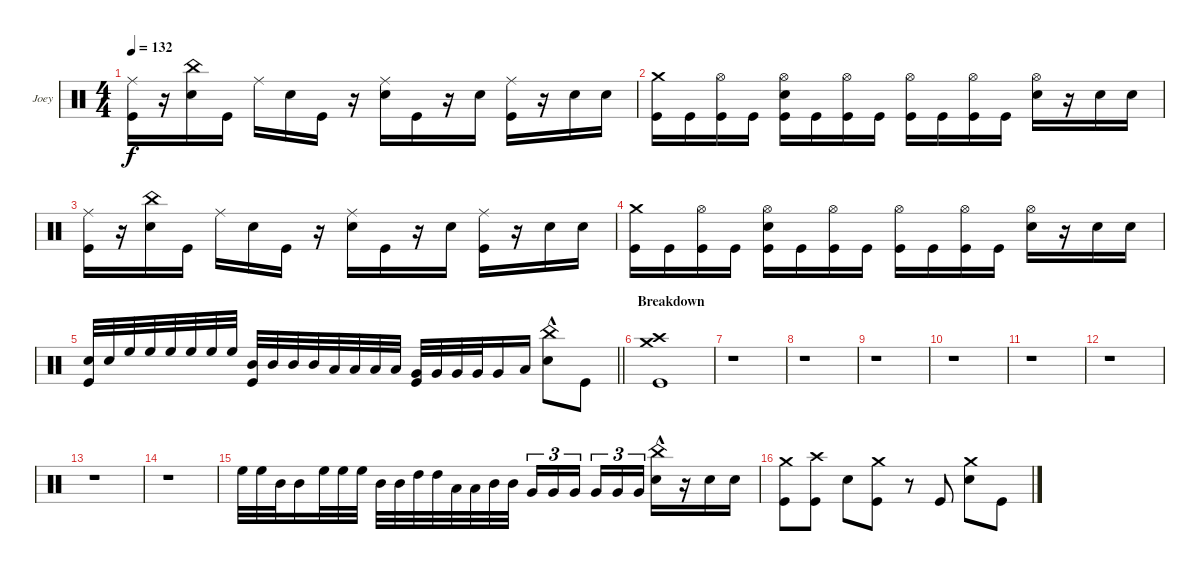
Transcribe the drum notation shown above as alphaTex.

\bracketExtendMode groupsimilarinstruments
\firstSystemTrackNameOrientation horizontal
\otherSystemsTrackNameOrientation horizontal
\track ("Joey Jordison" "Joey") {instrument percussion}
\staff {score}
\articulation defaults
\ts (4 4)
\tempo 132
\clef neutral
\ks c
("Ride (middle)" "Kick (hit)").16{dy f} r.16 ("China (hit)" "Snare (hit) 2").16 "Kick (hit)".16 "Ride (middle)".16 "Snare (hit) 2".16 "Kick (hit)".16 r.16 ("Ride (middle)" "Snare (hit) 2").16 "Kick (hit)".16 r.16 "Snare (hit) 2".16 ("Ride (middle)" "Kick (hit)").16 r.16 "Snare (hit) 2".16 "Snare (hit) 2".16 |
("Crash medium (hit)" "Kick (hit)").16 "Kick (hit)".16 ("Hi-Hat (open)" "Kick (hit)").16 "Kick (hit)".16 ("Hi-Hat (open)" "Snare (hit) 2" "Kick (hit)").16 "Kick (hit)".16 ("Hi-Hat (open)" "Kick (hit)").16 "Kick (hit)".16 ("Hi-Hat (open)" "Kick (hit)").16 "Kick (hit)".16 ("Hi-Hat (open)" "Kick (hit)").16 "Kick (hit)".16 ("Hi-Hat (open)" "Snare (hit) 2").16 r.16 "Snare (hit) 2".16 "Snare (hit) 2".16 |
("Ride (middle)" "Kick (hit)").16 r.16 ("China (hit)" "Snare (hit) 2").16 "Kick (hit)".16 "Ride (middle)".16 "Snare (hit) 2".16 "Kick (hit)".16 r.16 ("Ride (middle)" "Snare (hit) 2").16 "Kick (hit)".16 r.16 "Snare (hit) 2".16 ("Ride (middle)" "Kick (hit)").16 r.16 "Snare (hit) 2".16 "Snare (hit) 2".16 |
("Crash medium (hit)" "Kick (hit)").16 "Kick (hit)".16 ("Hi-Hat (open)" "Kick (hit)").16 "Kick (hit)".16 ("Hi-Hat (open)" "Snare (hit) 2" "Kick (hit)").16 "Kick (hit)".16 ("Hi-Hat (open)" "Kick (hit)").16 "Kick (hit)".16 ("Hi-Hat (open)" "Kick (hit)").16 "Kick (hit)".16 ("Hi-Hat (open)" "Kick (hit)").16 "Kick (hit)".16 ("Hi-Hat (open)" "Snare (hit) 2").16 r.16 "Snare (hit) 2".16 "Snare (hit) 2".16 |
\barLineRight lightlight
("Snare (hit) 2" "Kick (hit)").32 "Snare (hit) 2".32 "High Floor Tom (hit)".32 "High Floor Tom (hit)".32 "High Floor Tom (hit)".32 "High Floor Tom (hit)".32 "High Floor Tom (hit)".32 "High Floor Tom (hit)".32 ("Mid Tom (hit)" "Kick (hit)").32 "Mid Tom (hit)".32 "Mid Tom (hit)".32 "Mid Tom (hit)".32 "Low Tom (hit)".32 "Low Tom (hit)".32 "Low Tom (hit)".32 "Low Tom (hit)".32 ("Very Low Tom (hit)" "Kick (hit)").32 "Very Low Tom (hit)".32 "Very Low Tom (hit)".32 "Very Low Tom (hit)".32 "Very Low Tom (hit)".16 "Low Tom (hit)".16 ("Snare (hit) 2" "China (hit)"{hac}).8 "Kick (hit)".8 |
\section ("" "Breakdown")
("Crash high (hit)" "Crash medium (hit)" "Kick (hit)").1 |
r.1 |
r.1 |
r.1 |
r.1 |
r.1 |
r.1 |
r.1 |
r.1 |
"High Floor Tom (hit)".32 "High Floor Tom (hit)".32 "Mid Tom (hit)".32 "Mid Tom (hit)".16 "High Floor Tom (hit)".32 "High Floor Tom (hit)".32 "High Floor Tom (hit)".32 "Mid Tom (hit)".32 "Mid Tom (hit)".32 "High Tom (hit)".32 "High Tom (hit)".32 "Low Tom (hit)".32 "Low Tom (hit)".32 "Mid Tom (hit)".32 "Mid Tom (hit)".32 "Very Low Tom (hit)".16{tu (3 2)} "Very Low Tom (hit)".16{tu (3 2)} "Very Low Tom (hit)".16{tu (3 2)} "Very Low Tom (hit)".16{tu (3 2)} "Very Low Tom (hit)".16{tu (3 2)} "Very Low Tom (hit)".16{tu (3 2)} ("Snare (hit) 2" "China (hit)"{hac}).16 r.16 "Snare (hit) 2".16 "Snare (hit) 2".16 |
("Crash medium (hit)" "Kick (hit)").8 ("Crash high (hit)" "Kick (hit)").8 "Snare (hit) 2".8 ("Crash medium (hit)" "Kick (hit)").8 r.8 "Kick (hit)".8 ("Crash medium (hit)" "Snare (hit) 2").8 "Kick (hit)".8
